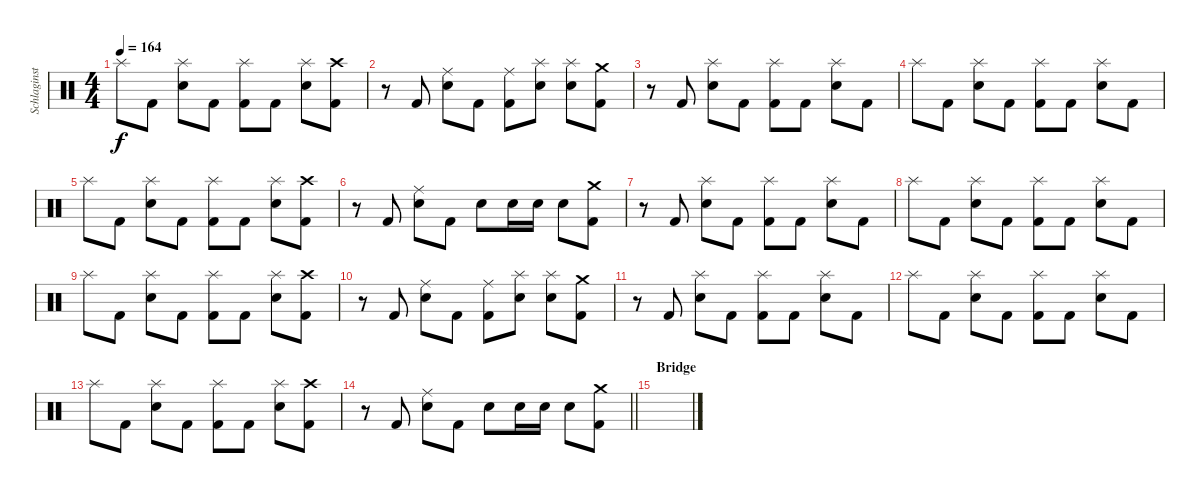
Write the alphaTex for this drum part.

\track ("Schlaginstrumente - Auswahl" "Schlaginst") {instrument percussion}
\staff {score}
\articulation defaults
\ts (4 4)
\tempo 164
\clef neutral
\ks c "Splash (hit)".8{dy f} "Kick (hit) 2".8
("Splash (hit)" "Electric Snare (hit)").8 "Kick (hit) 2".8 ("Splash (hit)" "Kick (hit) 2").8 "Kick (hit) 2".8 ("Splash (hit)" "Electric Snare (hit)").8 ("Crash high (hit)" "Kick (hit) 2").8 |
r.8 "Kick (hit) 2".8 ("Ride (middle)" "Electric Snare (hit)").8 "Kick (hit) 2".8 ("Ride (middle)" "Kick (hit) 2").8 ("Splash (hit)" "Electric Snare (hit)").8 ("Splash (hit)" "Electric Snare (hit)").8 ("Crash medium (hit)" "Kick (hit) 2").8 |
r.8 "Kick (hit) 2".8 ("Splash (hit)" "Electric Snare (hit)").8 "Kick (hit) 2".8 ("Splash (hit)" "Kick (hit) 2").8 "Kick (hit) 2".8 ("Splash (hit)" "Electric Snare (hit)").8 "Kick (hit) 2".8 |
"Splash (hit)".8 "Kick (hit) 2".8 ("Splash (hit)" "Electric Snare (hit)").8 "Kick (hit) 2".8 ("Splash (hit)" "Kick (hit) 2").8 "Kick (hit) 2".8 ("Splash (hit)" "Electric Snare (hit)").8 "Kick (hit) 2".8 |
"Splash (hit)".8 "Kick (hit) 2".8 ("Splash (hit)" "Electric Snare (hit)").8 "Kick (hit) 2".8 ("Splash (hit)" "Kick (hit) 2").8 "Kick (hit) 2".8 ("Splash (hit)" "Electric Snare (hit)").8 ("Crash high (hit)" "Kick (hit) 2").8 |
r.8 "Kick (hit) 2".8 ("Ride (middle)" "Electric Snare (hit)").8 "Kick (hit) 2".8 "Electric Snare (hit)".8 "Electric Snare (hit)".16 "Electric Snare (hit)".16 "Electric Snare (hit)".8 ("Crash medium (hit)" "Kick (hit) 2").8 |
r.8 "Kick (hit) 2".8 ("Splash (hit)" "Electric Snare (hit)").8 "Kick (hit) 2".8 ("Splash (hit)" "Kick (hit) 2").8 "Kick (hit) 2".8 ("Splash (hit)" "Electric Snare (hit)").8 "Kick (hit) 2".8 |
"Splash (hit)".8 "Kick (hit) 2".8 ("Splash (hit)" "Electric Snare (hit)").8 "Kick (hit) 2".8 ("Splash (hit)" "Kick (hit) 2").8 "Kick (hit) 2".8 ("Splash (hit)" "Electric Snare (hit)").8 "Kick (hit) 2".8 |
"Splash (hit)".8 "Kick (hit) 2".8 ("Splash (hit)" "Electric Snare (hit)").8 "Kick (hit) 2".8 ("Splash (hit)" "Kick (hit) 2").8 "Kick (hit) 2".8 ("Splash (hit)" "Electric Snare (hit)").8 ("Crash high (hit)" "Kick (hit) 2").8 |
r.8 "Kick (hit) 2".8 ("Ride (middle)" "Electric Snare (hit)").8 "Kick (hit) 2".8 ("Ride (middle)" "Kick (hit) 2").8 ("Splash (hit)" "Electric Snare (hit)").8 ("Splash (hit)" "Electric Snare (hit)").8 ("Crash medium (hit)" "Kick (hit) 2").8 |
r.8 "Kick (hit) 2".8 ("Splash (hit)" "Electric Snare (hit)").8 "Kick (hit) 2".8 ("Splash (hit)" "Kick (hit) 2").8 "Kick (hit) 2".8 ("Splash (hit)" "Electric Snare (hit)").8 "Kick (hit) 2".8 |
"Splash (hit)".8 "Kick (hit) 2".8 ("Splash (hit)" "Electric Snare (hit)").8 "Kick (hit) 2".8 ("Splash (hit)" "Kick (hit) 2").8 "Kick (hit) 2".8 ("Splash (hit)" "Electric Snare (hit)").8 "Kick (hit) 2".8 |
"Splash (hit)".8 "Kick (hit) 2".8 ("Splash (hit)" "Electric Snare (hit)").8 "Kick (hit) 2".8 ("Splash (hit)" "Kick (hit) 2").8 "Kick (hit) 2".8 ("Splash (hit)" "Electric Snare (hit)").8 ("Crash high (hit)" "Kick (hit) 2").8 |
\barLineRight lightlight
r.8 "Kick (hit) 2".8 ("Ride (middle)" "Electric Snare (hit)").8 "Kick (hit) 2".8 "Electric Snare (hit)".8 "Electric Snare (hit)".16 "Electric Snare (hit)".16 "Electric Snare (hit)".8 ("Crash medium (hit)" "Kick (hit) 2").8 |
\section ("" "Bridge")
